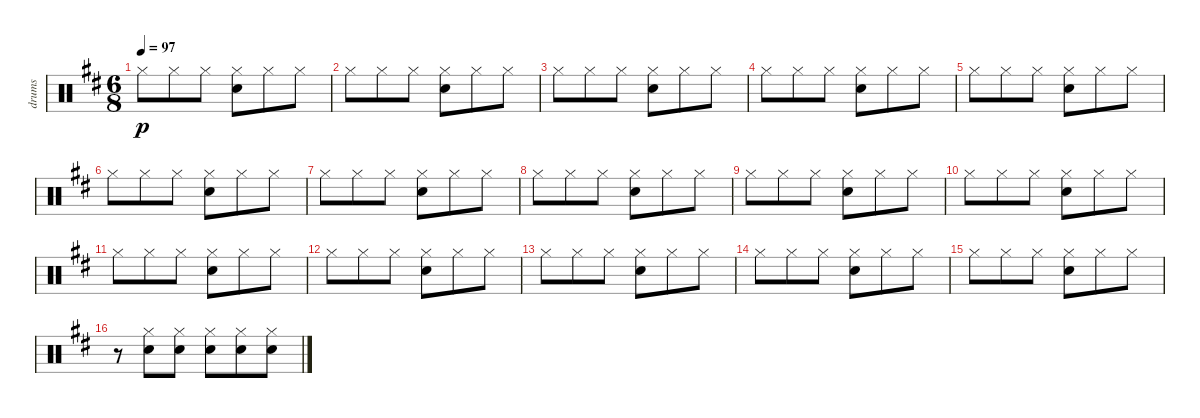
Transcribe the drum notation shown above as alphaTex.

\track ("drums" "drums") {instrument percussion}
\staff {score}
\articulation defaults
\ts (6 8)
\tempo 97
\clef neutral
\ks d "Hi-Hat (closed)".8{dy p} "Hi-Hat (closed)".8 "Hi-Hat (closed)".8
("Hi-Hat (closed)" "Electric Snare (hit)").8 "Hi-Hat (closed)".8 "Hi-Hat (closed)".8 |
"Hi-Hat (closed)".8 "Hi-Hat (closed)".8 "Hi-Hat (closed)".8 ("Hi-Hat (closed)" "Electric Snare (hit)").8 "Hi-Hat (closed)".8 "Hi-Hat (closed)".8 |
"Hi-Hat (closed)".8 "Hi-Hat (closed)".8 "Hi-Hat (closed)".8 ("Hi-Hat (closed)" "Electric Snare (hit)").8 "Hi-Hat (closed)".8 "Hi-Hat (closed)".8 |
"Hi-Hat (closed)".8 "Hi-Hat (closed)".8 "Hi-Hat (closed)".8 ("Hi-Hat (closed)" "Electric Snare (hit)").8 "Hi-Hat (closed)".8 "Hi-Hat (closed)".8 |
"Hi-Hat (closed)".8 "Hi-Hat (closed)".8 "Hi-Hat (closed)".8 ("Hi-Hat (closed)" "Electric Snare (hit)").8 "Hi-Hat (closed)".8 "Hi-Hat (closed)".8 |
"Hi-Hat (closed)".8 "Hi-Hat (closed)".8 "Hi-Hat (closed)".8 ("Hi-Hat (closed)" "Electric Snare (hit)").8 "Hi-Hat (closed)".8 "Hi-Hat (closed)".8 |
"Hi-Hat (closed)".8 "Hi-Hat (closed)".8 "Hi-Hat (closed)".8 ("Hi-Hat (closed)" "Electric Snare (hit)").8 "Hi-Hat (closed)".8 "Hi-Hat (closed)".8 |
"Hi-Hat (closed)".8 "Hi-Hat (closed)".8 "Hi-Hat (closed)".8 ("Hi-Hat (closed)" "Electric Snare (hit)").8 "Hi-Hat (closed)".8 "Hi-Hat (closed)".8 |
"Hi-Hat (closed)".8 "Hi-Hat (closed)".8 "Hi-Hat (closed)".8 ("Hi-Hat (closed)" "Electric Snare (hit)").8 "Hi-Hat (closed)".8 "Hi-Hat (closed)".8 |
"Hi-Hat (closed)".8 "Hi-Hat (closed)".8 "Hi-Hat (closed)".8 ("Hi-Hat (closed)" "Electric Snare (hit)").8 "Hi-Hat (closed)".8 "Hi-Hat (closed)".8 |
"Hi-Hat (closed)".8 "Hi-Hat (closed)".8 "Hi-Hat (closed)".8 ("Hi-Hat (closed)" "Electric Snare (hit)").8 "Hi-Hat (closed)".8 "Hi-Hat (closed)".8 |
"Hi-Hat (closed)".8 "Hi-Hat (closed)".8 "Hi-Hat (closed)".8 ("Hi-Hat (closed)" "Electric Snare (hit)").8 "Hi-Hat (closed)".8 "Hi-Hat (closed)".8 |
"Hi-Hat (closed)".8 "Hi-Hat (closed)".8 "Hi-Hat (closed)".8 ("Hi-Hat (closed)" "Electric Snare (hit)").8 "Hi-Hat (closed)".8 "Hi-Hat (closed)".8 |
"Hi-Hat (closed)".8 "Hi-Hat (closed)".8 "Hi-Hat (closed)".8 ("Hi-Hat (closed)" "Electric Snare (hit)").8 "Hi-Hat (closed)".8 "Hi-Hat (closed)".8 |
"Hi-Hat (closed)".8 "Hi-Hat (closed)".8 "Hi-Hat (closed)".8 ("Hi-Hat (closed)" "Electric Snare (hit)").8 "Hi-Hat (closed)".8 "Hi-Hat (closed)".8 |
r.8 ("Hi-Hat (closed)" "Electric Snare (hit)").8 ("Hi-Hat (closed)" "Electric Snare (hit)").8 ("Hi-Hat (closed)" "Electric Snare (hit)").8 ("Hi-Hat (closed)" "Electric Snare (hit)").8 ("Hi-Hat (closed)" "Electric Snare (hit)").8
